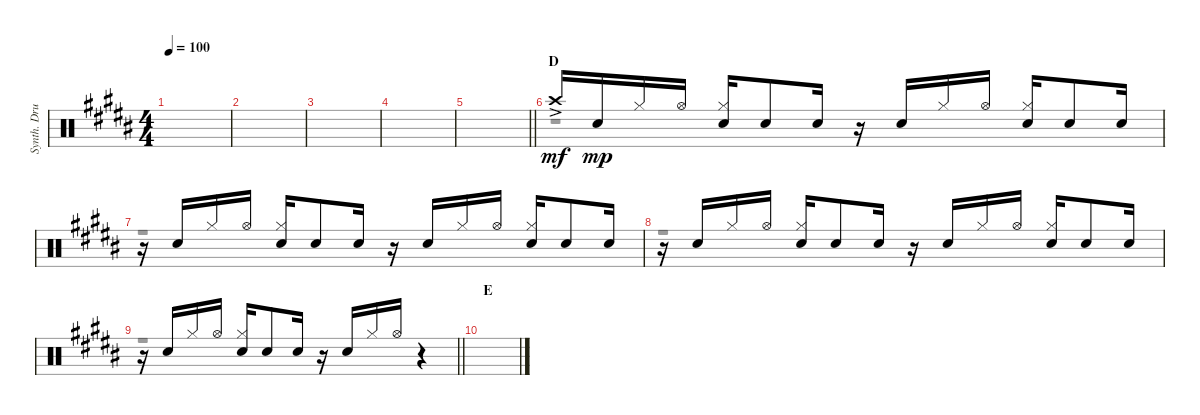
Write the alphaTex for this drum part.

\track ("Synth. Drums" "Synth. Dru") {instrument percussion}
\staff {score}
\articulation defaults
\voice
\ts (4 4)
\tempo 100
\clef neutral
\ks b
|
|
|
|
\barLineRight lightlight
|
\section ("" "D")
"Crash high (hit)"{ac}.16{dy mf} "Snare (hit) 2".16{dy mp} "Hi-Hat (closed)".16 "Hi-Hat (open)".16 ("Hi-Hat (closed)" "Snare (hit) 2").16 "Snare (hit) 2".8 "Snare (hit) 2".16 r.16 "Snare (hit) 2".16 "Hi-Hat (closed)".16 "Hi-Hat (open)".16 ("Hi-Hat (closed)" "Snare (hit) 2").16 "Snare (hit) 2".8 "Snare (hit) 2".16 |
r.16 "Snare (hit) 2".16 "Hi-Hat (closed)".16 "Hi-Hat (open)".16 ("Hi-Hat (closed)" "Snare (hit) 2").16 "Snare (hit) 2".8 "Snare (hit) 2".16 r.16 "Snare (hit) 2".16 "Hi-Hat (closed)".16 "Hi-Hat (open)".16 ("Hi-Hat (closed)" "Snare (hit) 2").16 "Snare (hit) 2".8 "Snare (hit) 2".16 |
r.16 "Snare (hit) 2".16 "Hi-Hat (closed)".16 "Hi-Hat (open)".16 ("Hi-Hat (closed)" "Snare (hit) 2").16 "Snare (hit) 2".8 "Snare (hit) 2".16 r.16 "Snare (hit) 2".16 "Hi-Hat (closed)".16 "Hi-Hat (open)".16 ("Hi-Hat (closed)" "Snare (hit) 2").16 "Snare (hit) 2".8 "Snare (hit) 2".16 |
\barLineRight lightlight
r.16 "Snare (hit) 2".16 "Hi-Hat (closed)".16 "Hi-Hat (open)".16 ("Hi-Hat (closed)" "Snare (hit) 2").16 "Snare (hit) 2".8 "Snare (hit) 2".16 r.16 "Snare (hit) 2".16 "Hi-Hat (closed)".16 "Hi-Hat (open)".16 r.4 |
\section ("" "E")
|
|
|
|
|
|
\voice
\clef neutral
\ottava regular
\simile none
\ks b
|
|
|
|
\barLineRight lightlight
|
r.1 |
r.1 |
r.1 |
\barLineRight lightlight
r.1 |
|
|
|
|
|
|
